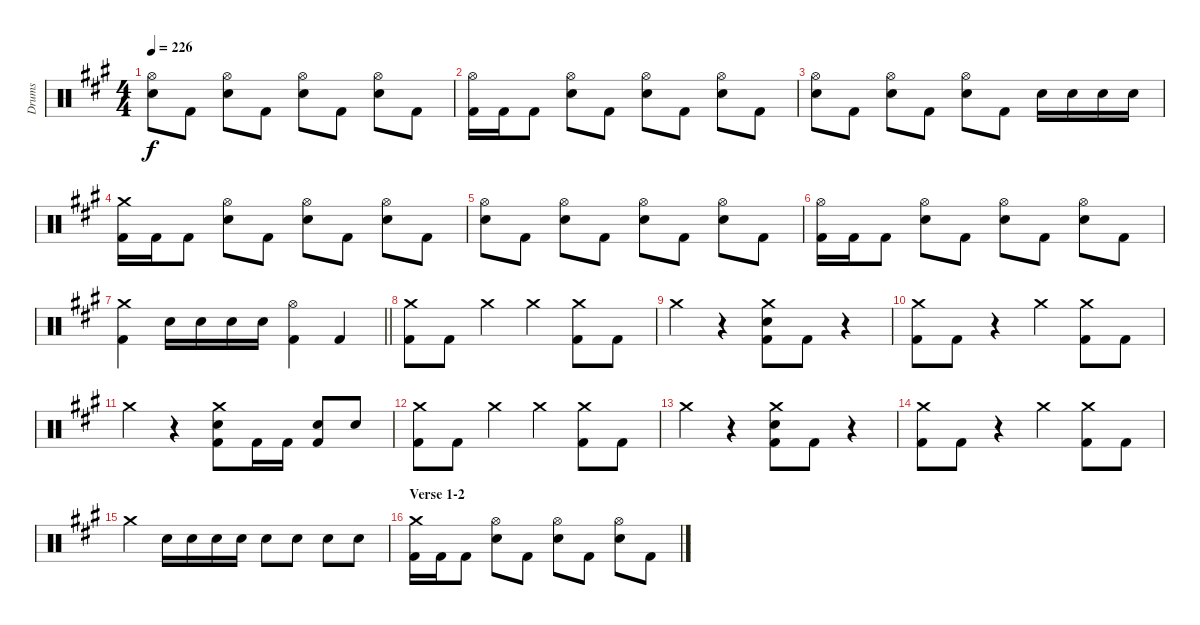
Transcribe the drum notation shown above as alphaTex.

\track ("Drums" "Drums") {instrument percussion}
\staff {score}
\articulation defaults
\ts (4 4)
\tempo 226
\clef neutral
\ks a
("Hi-Hat (open)" "Snare (hit) 2").8{dy f} "Kick (hit) 2".8 ("Hi-Hat (open)" "Snare (hit) 2").8 "Kick (hit) 2".8 ("Hi-Hat (open)" "Snare (hit) 2").8 "Kick (hit) 2".8 ("Hi-Hat (open)" "Snare (hit) 2").8 "Kick (hit) 2".8 |
("Hi-Hat (open)" "Kick (hit) 2").16 "Kick (hit) 2".16 "Kick (hit) 2".8 ("Hi-Hat (open)" "Snare (hit) 2").8 "Kick (hit) 2".8 ("Hi-Hat (open)" "Snare (hit) 2").8 "Kick (hit) 2".8 ("Hi-Hat (open)" "Snare (hit) 2").8 "Kick (hit) 2".8 |
("Hi-Hat (open)" "Snare (hit) 2").8 "Kick (hit) 2".8 ("Hi-Hat (open)" "Snare (hit) 2").8 "Kick (hit) 2".8 ("Hi-Hat (open)" "Snare (hit) 2").8 "Kick (hit) 2".8 "Snare (hit) 2".16 "Snare (hit) 2".16 "Snare (hit) 2".16 "Snare (hit) 2".16 |
("Crash medium (hit)" "Kick (hit) 2").16 "Kick (hit) 2".16 "Kick (hit) 2".8 ("Hi-Hat (open)" "Snare (hit) 2").8 "Kick (hit) 2".8 ("Hi-Hat (open)" "Snare (hit) 2").8 "Kick (hit) 2".8 ("Hi-Hat (open)" "Snare (hit) 2").8 "Kick (hit) 2".8 |
("Hi-Hat (open)" "Snare (hit) 2").8 "Kick (hit) 2".8 ("Hi-Hat (open)" "Snare (hit) 2").8 "Kick (hit) 2".8 ("Hi-Hat (open)" "Snare (hit) 2").8 "Kick (hit) 2".8 ("Hi-Hat (open)" "Snare (hit) 2").8 "Kick (hit) 2".8 |
("Hi-Hat (open)" "Kick (hit) 2").16 "Kick (hit) 2".16 "Kick (hit) 2".8 ("Hi-Hat (open)" "Snare (hit) 2").8 "Kick (hit) 2".8 ("Hi-Hat (open)" "Snare (hit) 2").8 "Kick (hit) 2".8 ("Hi-Hat (open)" "Snare (hit) 2").8 "Kick (hit) 2".8 |
\barLineRight lightlight
("Crash medium (hit)" "Kick (hit) 2").4 "Snare (hit) 2".16 "Snare (hit) 2".16 "Snare (hit) 2".16 "Snare (hit) 2".16 ("Hi-Hat (open)" "Kick (hit) 2").4 "Kick (hit) 2".4 |
("Crash medium (hit)" "Kick (hit) 2").8 "Kick (hit) 2".8 "Crash medium (hit)".4 "Crash medium (hit)".4 ("Crash medium (hit)" "Kick (hit) 2").8 "Kick (hit) 2".8 |
"Crash medium (hit)".4 r.4 ("Crash medium (hit)" "Snare (hit) 2" "Kick (hit) 2").8 "Kick (hit) 2".8 r.4 |
("Crash medium (hit)" "Kick (hit) 2").8 "Kick (hit) 2".8 r.4 "Crash medium (hit)".4 ("Crash medium (hit)" "Kick (hit) 2").8 "Kick (hit) 2".8 |
"Crash medium (hit)".4 r.4 ("Crash medium (hit)" "Snare (hit) 2" "Kick (hit) 2").8 "Kick (hit) 2".16 "Kick (hit) 2".16 ("Snare (hit) 2" "Kick (hit) 2").8 "Snare (hit) 2".8 |
("Crash medium (hit)" "Kick (hit) 2").8 "Kick (hit) 2".8 "Crash medium (hit)".4 "Crash medium (hit)".4 ("Crash medium (hit)" "Kick (hit) 2").8 "Kick (hit) 2".8 |
"Crash medium (hit)".4 r.4 ("Crash medium (hit)" "Snare (hit) 2" "Kick (hit) 2").8 "Kick (hit) 2".8 r.4 |
("Crash medium (hit)" "Kick (hit) 2").8 "Kick (hit) 2".8 r.4 "Crash medium (hit)".4 ("Crash medium (hit)" "Kick (hit) 2").8 "Kick (hit) 2".8 |
"Crash medium (hit)".4 "Snare (hit) 2".16 "Snare (hit) 2".16 "Snare (hit) 2".16 "Snare (hit) 2".16 "Snare (hit) 2".8 "Snare (hit) 2".8 "Snare (hit) 2".8 "Snare (hit) 2".8 |
\section ("" "Verse 1-2")
("Crash medium (hit)" "Kick (hit) 2").16 "Kick (hit) 2".16 "Kick (hit) 2".8 ("Hi-Hat (open)" "Snare (hit) 2").8 "Kick (hit) 2".8 ("Hi-Hat (open)" "Snare (hit) 2").8 "Kick (hit) 2".8 ("Hi-Hat (open)" "Snare (hit) 2").8 "Kick (hit) 2".8
